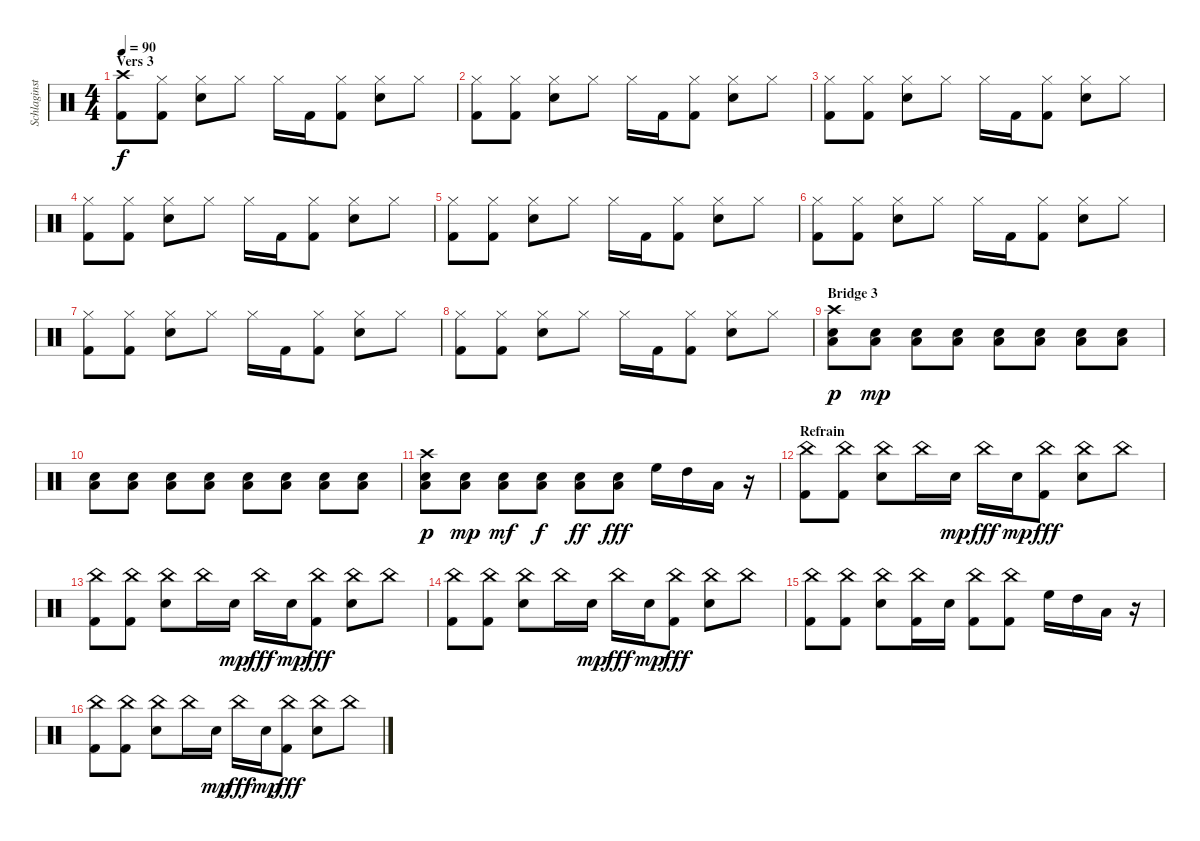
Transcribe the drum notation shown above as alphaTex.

\track ("Schlaginstrumente - Auswahl" "Schlaginst") {instrument percussion}
\staff {score}
\articulation defaults
\ts (4 4)
\section ("" "Vers 3")
\tempo 90
\clef neutral
\ks c
("Crash high (hit)" "Kick (hit) 2").8{dy f} ("Hi-Hat (closed)" "Kick (hit) 2").8 ("Hi-Hat (closed)" "Snare (hit) 2").8 "Hi-Hat (closed)".8 "Hi-Hat (closed)".16 "Kick (hit) 2".16 ("Hi-Hat (closed)" "Kick (hit) 2").8 ("Hi-Hat (closed)" "Snare (hit) 2").8 "Hi-Hat (closed)".8 |
("Hi-Hat (closed)" "Kick (hit) 2").8 ("Hi-Hat (closed)" "Kick (hit) 2").8 ("Hi-Hat (closed)" "Snare (hit) 2").8 "Hi-Hat (closed)".8 "Hi-Hat (closed)".16 "Kick (hit) 2".16 ("Hi-Hat (closed)" "Kick (hit) 2").8 ("Hi-Hat (closed)" "Snare (hit) 2").8 "Hi-Hat (closed)".8 |
("Hi-Hat (closed)" "Kick (hit) 2").8 ("Hi-Hat (closed)" "Kick (hit) 2").8 ("Hi-Hat (closed)" "Snare (hit) 2").8 "Hi-Hat (closed)".8 "Hi-Hat (closed)".16 "Kick (hit) 2".16 ("Hi-Hat (closed)" "Kick (hit) 2").8 ("Hi-Hat (closed)" "Snare (hit) 2").8 "Hi-Hat (closed)".8 |
("Hi-Hat (closed)" "Kick (hit) 2").8 ("Hi-Hat (closed)" "Kick (hit) 2").8 ("Hi-Hat (closed)" "Snare (hit) 2").8 "Hi-Hat (closed)".8 "Hi-Hat (closed)".16 "Kick (hit) 2".16 ("Hi-Hat (closed)" "Kick (hit) 2").8 ("Hi-Hat (closed)" "Snare (hit) 2").8 "Hi-Hat (closed)".8 |
("Hi-Hat (closed)" "Kick (hit) 2").8 ("Hi-Hat (closed)" "Kick (hit) 2").8 ("Hi-Hat (closed)" "Snare (hit) 2").8 "Hi-Hat (closed)".8 "Hi-Hat (closed)".16 "Kick (hit) 2".16 ("Hi-Hat (closed)" "Kick (hit) 2").8 ("Hi-Hat (closed)" "Snare (hit) 2").8 "Hi-Hat (closed)".8 |
("Hi-Hat (closed)" "Kick (hit) 2").8 ("Hi-Hat (closed)" "Kick (hit) 2").8 ("Hi-Hat (closed)" "Snare (hit) 2").8 "Hi-Hat (closed)".8 "Hi-Hat (closed)".16 "Kick (hit) 2".16 ("Hi-Hat (closed)" "Kick (hit) 2").8 ("Hi-Hat (closed)" "Snare (hit) 2").8 "Hi-Hat (closed)".8 |
("Hi-Hat (closed)" "Kick (hit) 2").8 ("Hi-Hat (closed)" "Kick (hit) 2").8 ("Hi-Hat (closed)" "Snare (hit) 2").8 "Hi-Hat (closed)".8 "Hi-Hat (closed)".16 "Kick (hit) 2".16 ("Hi-Hat (closed)" "Kick (hit) 2").8 ("Hi-Hat (closed)" "Snare (hit) 2").8 "Hi-Hat (closed)".8 |
("Hi-Hat (closed)" "Kick (hit) 2").8 ("Hi-Hat (closed)" "Kick (hit) 2").8 ("Hi-Hat (closed)" "Snare (hit) 2").8 "Hi-Hat (closed)".8 "Hi-Hat (closed)".16 "Kick (hit) 2".16 ("Hi-Hat (closed)" "Kick (hit) 2").8 ("Hi-Hat (closed)" "Snare (hit) 2").8 "Hi-Hat (closed)".8 |
\section ("" "Bridge 3")
("Crash high (hit)" "Low Tom (hit)" "Snare (hit) 2").8{dy p} ("Low Tom (hit)" "Snare (hit) 2").8{dy mp} ("Low Tom (hit)" "Snare (hit) 2").8 ("Low Tom (hit)" "Snare (hit) 2").8 ("Low Tom (hit)" "Snare (hit) 2").8 ("Low Tom (hit)" "Snare (hit) 2").8 ("Low Tom (hit)" "Snare (hit) 2").8 ("Low Tom (hit)" "Snare (hit) 2").8 |
("Low Tom (hit)" "Snare (hit) 2").8 ("Low Tom (hit)" "Snare (hit) 2").8 ("Low Tom (hit)" "Snare (hit) 2").8 ("Low Tom (hit)" "Snare (hit) 2").8 ("Low Tom (hit)" "Snare (hit) 2").8 ("Low Tom (hit)" "Snare (hit) 2").8 ("Low Tom (hit)" "Snare (hit) 2").8 ("Low Tom (hit)" "Snare (hit) 2").8 |
("Crash high (hit)" "Low Tom (hit)" "Snare (hit) 2").8{dy p} ("Low Tom (hit)" "Snare (hit) 2").8{dy mp} ("Low Tom (hit)" "Snare (hit) 2").8{dy mf} ("Low Tom (hit)" "Snare (hit) 2").8{dy f} ("Low Tom (hit)" "Snare (hit) 2").8{dy ff} ("Low Tom (hit)" "Snare (hit) 2").8{dy fff} "High Floor Tom (hit)".16 "High Tom (hit)".16 "Low Tom (hit)".16 r.16 |
\section ("" "Refrain")
("China (hit)" "Kick (hit) 2").8 ("China (hit)" "Kick (hit) 2").8 ("China (hit)" "Snare (hit) 2").8 "China (hit)".16 "Snare (hit) 2".16{dy mp} "China (hit)".16{dy fff} "Snare (hit) 2".16{dy mp} ("China (hit)" "Kick (hit) 2").8{dy fff} ("China (hit)" "Snare (hit) 2").8 "China (hit)".8 |
("China (hit)" "Kick (hit) 2").8 ("China (hit)" "Kick (hit) 2").8 ("China (hit)" "Snare (hit) 2").8 "China (hit)".16 "Snare (hit) 2".16{dy mp} "China (hit)".16{dy fff} "Snare (hit) 2".16{dy mp} ("China (hit)" "Kick (hit) 2").8{dy fff} ("China (hit)" "Snare (hit) 2").8 "China (hit)".8 |
("China (hit)" "Kick (hit) 2").8 ("China (hit)" "Kick (hit) 2").8 ("China (hit)" "Snare (hit) 2").8 "China (hit)".16 "Snare (hit) 2".16{dy mp} "China (hit)".16{dy fff} "Snare (hit) 2".16{dy mp} ("China (hit)" "Kick (hit) 2").8{dy fff} ("China (hit)" "Snare (hit) 2").8 "China (hit)".8 |
("China (hit)" "Kick (hit) 2").8 ("China (hit)" "Kick (hit) 2").8 ("China (hit)" "Snare (hit) 2").8 ("China (hit)" "Kick (hit) 2").16 "Snare (hit) 2".16 ("China (hit)" "Kick (hit) 2").8 ("China (hit)" "Kick (hit) 2").8 "High Floor Tom (hit)".16 "High Tom (hit)".16 "Low Tom (hit)".16 r.16 |
("China (hit)" "Kick (hit) 2").8 ("China (hit)" "Kick (hit) 2").8 ("China (hit)" "Snare (hit) 2").8 "China (hit)".16 "Snare (hit) 2".16{dy mp} "China (hit)".16{dy fff} "Snare (hit) 2".16{dy mp} ("China (hit)" "Kick (hit) 2").8{dy fff} ("China (hit)" "Snare (hit) 2").8 "China (hit)".8
